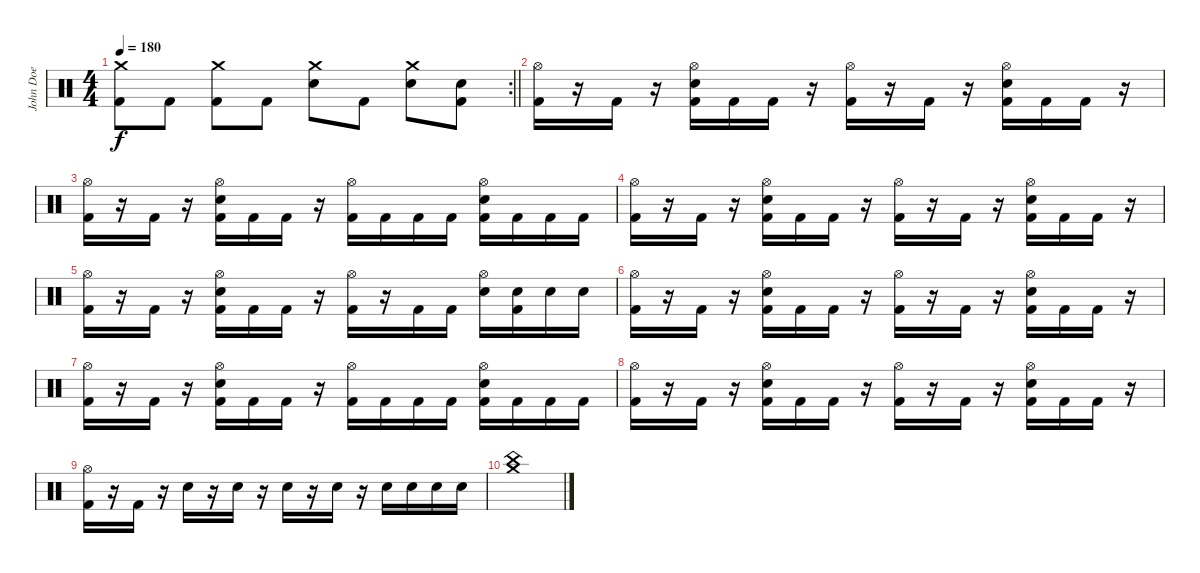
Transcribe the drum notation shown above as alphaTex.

\track ("John Doe" "John Doe") {instrument percussion}
\staff {score}
\articulation defaults
\rc 2
\ts (4 4)
\tempo 180
\clef neutral
\barLineRight lightlight
\ks c
("Crash medium (hit)" "Kick (hit) 2").8{dy f} "Kick (hit) 2".8 ("Crash medium (hit)" "Kick (hit) 2").8 "Kick (hit) 2".8 ("Crash medium (hit)" "Electric Snare (hit)").8 "Kick (hit) 2".8 ("Crash medium (hit)" "Electric Snare (hit)").8 ("Electric Snare (hit)" "Kick (hit) 2").8 |
("Hi-Hat (open)" "Kick (hit) 2").16 r.16 "Kick (hit) 2".16 r.16 ("Hi-Hat (open)" "Electric Snare (hit)" "Kick (hit) 2").16 "Kick (hit) 2".16 "Kick (hit) 2".16 r.16 ("Hi-Hat (open)" "Kick (hit) 2").16 r.16 "Kick (hit) 2".16 r.16 ("Hi-Hat (open)" "Electric Snare (hit)" "Kick (hit) 2").16 "Kick (hit) 2".16 "Kick (hit) 2".16 r.16 |
("Hi-Hat (open)" "Kick (hit) 2").16 r.16 "Kick (hit) 2".16 r.16 ("Hi-Hat (open)" "Electric Snare (hit)" "Kick (hit) 2").16 "Kick (hit) 2".16 "Kick (hit) 2".16 r.16 ("Hi-Hat (open)" "Kick (hit) 2").16 "Kick (hit) 2".16 "Kick (hit) 2".16 "Kick (hit) 2".16 ("Hi-Hat (open)" "Electric Snare (hit)" "Kick (hit) 2").16 "Kick (hit) 2".16 "Kick (hit) 2".16 "Kick (hit) 2".16 |
("Hi-Hat (open)" "Kick (hit) 2").16 r.16 "Kick (hit) 2".16 r.16 ("Hi-Hat (open)" "Electric Snare (hit)" "Kick (hit) 2").16 "Kick (hit) 2".16 "Kick (hit) 2".16 r.16 ("Hi-Hat (open)" "Kick (hit) 2").16 r.16 "Kick (hit) 2".16 r.16 ("Hi-Hat (open)" "Electric Snare (hit)" "Kick (hit) 2").16 "Kick (hit) 2".16 "Kick (hit) 2".16 r.16 |
("Hi-Hat (open)" "Kick (hit) 2").16 r.16 "Kick (hit) 2".16 r.16 ("Hi-Hat (open)" "Electric Snare (hit)" "Kick (hit) 2").16 "Kick (hit) 2".16 "Kick (hit) 2".16 r.16 ("Hi-Hat (open)" "Kick (hit) 2").16 r.16 "Kick (hit) 2".16 "Kick (hit) 2".16 ("Hi-Hat (open)" "Electric Snare (hit)").16 ("Electric Snare (hit)" "Kick (hit) 2").16 "Electric Snare (hit)".16 "Electric Snare (hit)".16 |
("Hi-Hat (open)" "Kick (hit) 2").16 r.16 "Kick (hit) 2".16 r.16 ("Hi-Hat (open)" "Electric Snare (hit)" "Kick (hit) 2").16 "Kick (hit) 2".16 "Kick (hit) 2".16 r.16 ("Hi-Hat (open)" "Kick (hit) 2").16 r.16 "Kick (hit) 2".16 r.16 ("Hi-Hat (open)" "Electric Snare (hit)" "Kick (hit) 2").16 "Kick (hit) 2".16 "Kick (hit) 2".16 r.16 |
("Hi-Hat (open)" "Kick (hit) 2").16 r.16 "Kick (hit) 2".16 r.16 ("Hi-Hat (open)" "Electric Snare (hit)" "Kick (hit) 2").16 "Kick (hit) 2".16 "Kick (hit) 2".16 r.16 ("Hi-Hat (open)" "Kick (hit) 2").16 "Kick (hit) 2".16 "Kick (hit) 2".16 "Kick (hit) 2".16 ("Hi-Hat (open)" "Electric Snare (hit)" "Kick (hit) 2").16 "Kick (hit) 2".16 "Kick (hit) 2".16 "Kick (hit) 2".16 |
("Hi-Hat (open)" "Kick (hit) 2").16 r.16 "Kick (hit) 2".16 r.16 ("Hi-Hat (open)" "Electric Snare (hit)" "Kick (hit) 2").16 "Kick (hit) 2".16 "Kick (hit) 2".16 r.16 ("Hi-Hat (open)" "Kick (hit) 2").16 r.16 "Kick (hit) 2".16 r.16 ("Hi-Hat (open)" "Electric Snare (hit)" "Kick (hit) 2").16 "Kick (hit) 2".16 "Kick (hit) 2".16 r.16 |
("Hi-Hat (open)" "Kick (hit) 2").16 r.16 "Kick (hit) 2".16 r.16 "Electric Snare (hit)".16 r.16 "Electric Snare (hit)".16 r.16 "Electric Snare (hit)".16 r.16 "Electric Snare (hit)".16 r.16 "Electric Snare (hit)".16 "Electric Snare (hit)".16 "Electric Snare (hit)".16 "Electric Snare (hit)".16 |
("Crash medium (hit)" "China (hit)").1
